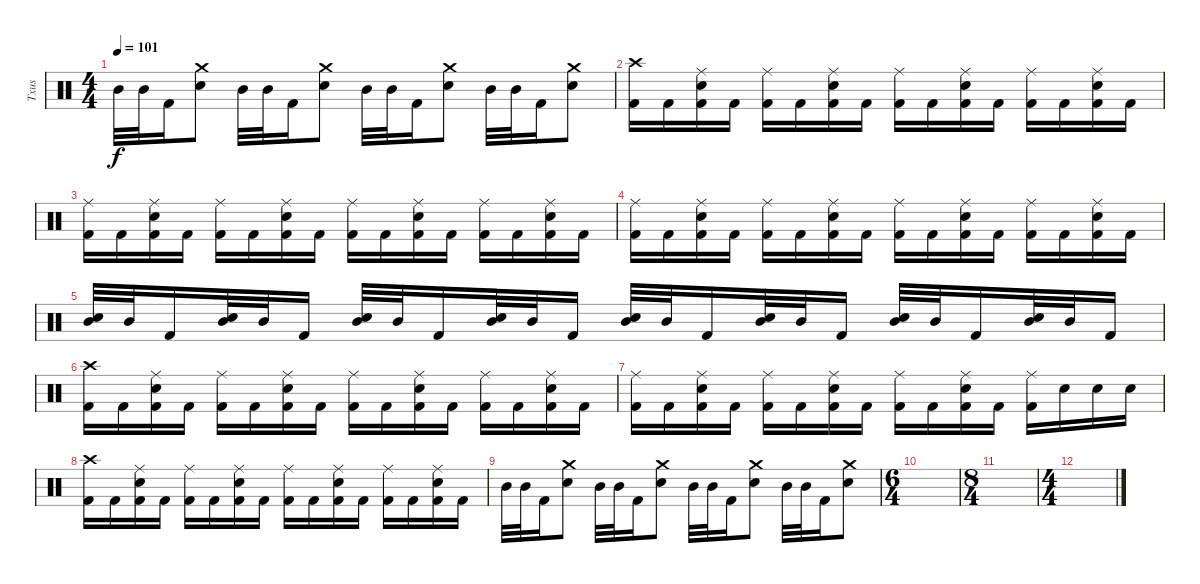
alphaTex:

\track ("Txus" "Txus") {instrument percussion}
\staff {score}
\articulation defaults
\ts (4 4)
\tempo 101
\clef neutral
\ks c "Mid Tom (hit)".32{dy f} "Mid Tom (hit)".32 "Kick (hit) 2".16
("Electric Snare (hit)" "Crash medium (hit)").8 "Mid Tom (hit)".32 "Mid Tom (hit)".32 "Kick (hit) 2".16 ("Electric Snare (hit)" "Crash medium (hit)").8{volume 10} "Mid Tom (hit)".32 "Mid Tom (hit)".32 "Kick (hit) 2".16 ("Electric Snare (hit)" "Crash medium (hit)").8 "Mid Tom (hit)".32 "Mid Tom (hit)".32 "Kick (hit) 2".16 ("Electric Snare (hit)" "Crash medium (hit)").8 |
("Kick (hit) 2" "Crash high (hit)").16 "Kick (hit) 2".16 ("Kick (hit) 2" "Electric Snare (hit)" "Ride (middle)").16 "Kick (hit) 2".16 ("Kick (hit) 2" "Ride (middle)").16 "Kick (hit) 2".16 ("Kick (hit) 2" "Electric Snare (hit)" "Ride (middle)").16 "Kick (hit) 2".16 ("Kick (hit) 2" "Ride (middle)").16 "Kick (hit) 2".16 ("Kick (hit) 2" "Electric Snare (hit)" "Ride (middle)").16 "Kick (hit) 2".16 ("Kick (hit) 2" "Ride (middle)").16 "Kick (hit) 2".16 ("Kick (hit) 2" "Electric Snare (hit)" "Ride (middle)").16 "Kick (hit) 2".16 |
("Kick (hit) 2" "Ride (middle)").16 "Kick (hit) 2".16 ("Kick (hit) 2" "Electric Snare (hit)" "Ride (middle)").16 "Kick (hit) 2".16 ("Kick (hit) 2" "Ride (middle)").16 "Kick (hit) 2".16 ("Kick (hit) 2" "Electric Snare (hit)" "Ride (middle)").16{volume 6} "Kick (hit) 2".16 ("Kick (hit) 2" "Ride (middle)").16 "Kick (hit) 2".16 ("Kick (hit) 2" "Electric Snare (hit)" "Ride (middle)").16 "Kick (hit) 2".16 ("Kick (hit) 2" "Ride (middle)").16 "Kick (hit) 2".16 ("Kick (hit) 2" "Electric Snare (hit)" "Ride (middle)").16 "Kick (hit) 2".16 |
("Kick (hit) 2" "Ride (middle)").16 "Kick (hit) 2".16 ("Kick (hit) 2" "Electric Snare (hit)" "Ride (middle)").16 "Kick (hit) 2".16 ("Kick (hit) 2" "Ride (middle)").16 "Kick (hit) 2".16 ("Kick (hit) 2" "Electric Snare (hit)" "Ride (middle)").16 "Kick (hit) 2".16 ("Kick (hit) 2" "Ride (middle)").16 "Kick (hit) 2".16 ("Kick (hit) 2" "Electric Snare (hit)" "Ride (middle)").16 "Kick (hit) 2".16 ("Kick (hit) 2" "Ride (middle)").16 "Kick (hit) 2".16 ("Kick (hit) 2" "Electric Snare (hit)" "Ride (middle)").16 "Kick (hit) 2".16 |
("Electric Snare (hit)" "Mid Tom (hit)").32 "Mid Tom (hit)".32 "Kick (hit) 2".16 ("Electric Snare (hit)" "Mid Tom (hit)").32 "Mid Tom (hit)".32 "Kick (hit) 2".16 ("Electric Snare (hit)" "Mid Tom (hit)").32 "Mid Tom (hit)".32 "Kick (hit) 2".16 ("Electric Snare (hit)" "Mid Tom (hit)").32 "Mid Tom (hit)".32 "Kick (hit) 2".16 ("Electric Snare (hit)" "Mid Tom (hit)").32 "Mid Tom (hit)".32 "Kick (hit) 2".16 ("Electric Snare (hit)" "Mid Tom (hit)").32 "Mid Tom (hit)".32 "Kick (hit) 2".16 ("Electric Snare (hit)" "Mid Tom (hit)").32{volume 4} "Mid Tom (hit)".32 "Kick (hit) 2".16 ("Electric Snare (hit)" "Mid Tom (hit)").32 "Mid Tom (hit)".32 "Kick (hit) 2".16 |
("Kick (hit) 2" "Crash high (hit)").16 "Kick (hit) 2".16 ("Kick (hit) 2" "Electric Snare (hit)" "Ride (middle)").16 "Kick (hit) 2".16 ("Kick (hit) 2" "Ride (middle)").16 "Kick (hit) 2".16 ("Kick (hit) 2" "Electric Snare (hit)" "Ride (middle)").16 "Kick (hit) 2".16 ("Kick (hit) 2" "Ride (middle)").16 "Kick (hit) 2".16 ("Kick (hit) 2" "Electric Snare (hit)" "Ride (middle)").16 "Kick (hit) 2".16 ("Kick (hit) 2" "Ride (middle)").16 "Kick (hit) 2".16 ("Kick (hit) 2" "Electric Snare (hit)" "Ride (middle)").16 "Kick (hit) 2".16 |
("Kick (hit) 2" "Ride (middle)").16 "Kick (hit) 2".16 ("Kick (hit) 2" "Electric Snare (hit)" "Ride (middle)").16 "Kick (hit) 2".16 ("Kick (hit) 2" "Ride (middle)").16 "Kick (hit) 2".16 ("Kick (hit) 2" "Electric Snare (hit)" "Ride (middle)").16 "Kick (hit) 2".16 ("Kick (hit) 2" "Ride (middle)").16 "Kick (hit) 2".16 ("Kick (hit) 2" "Electric Snare (hit)" "Ride (middle)").16 "Kick (hit) 2".16 ("Kick (hit) 2" "Ride (middle)").16{volume 0} "Electric Snare (hit)".16 "Electric Snare (hit)".16 "Electric Snare (hit)".16 |
("Kick (hit) 2" "Crash high (hit)").16 "Kick (hit) 2".16 ("Kick (hit) 2" "Electric Snare (hit)" "Ride (middle)").16 "Kick (hit) 2".16 ("Kick (hit) 2" "Ride (middle)").16 "Kick (hit) 2".16 ("Kick (hit) 2" "Electric Snare (hit)" "Ride (middle)").16 "Kick (hit) 2".16 ("Kick (hit) 2" "Ride (middle)").16 "Kick (hit) 2".16 ("Kick (hit) 2" "Electric Snare (hit)" "Ride (middle)").16 "Kick (hit) 2".16 ("Kick (hit) 2" "Ride (middle)").16 "Kick (hit) 2".16 ("Kick (hit) 2" "Electric Snare (hit)" "Ride (middle)").16 "Kick (hit) 2".16 |
"Mid Tom (hit)".32 "Mid Tom (hit)".32 "Kick (hit) 2".16 ("Electric Snare (hit)" "Crash medium (hit)").8 "Mid Tom (hit)".32 "Mid Tom (hit)".32 "Kick (hit) 2".16 ("Electric Snare (hit)" "Crash medium (hit)").8 "Mid Tom (hit)".32 "Mid Tom (hit)".32 "Kick (hit) 2".16 ("Electric Snare (hit)" "Crash medium (hit)").8 "Mid Tom (hit)".32 "Mid Tom (hit)".32 "Kick (hit) 2".16 ("Electric Snare (hit)" "Crash medium (hit)").8 |
\ts (6 4)
|
\ts (8 4)
|
\ts (4 4)
